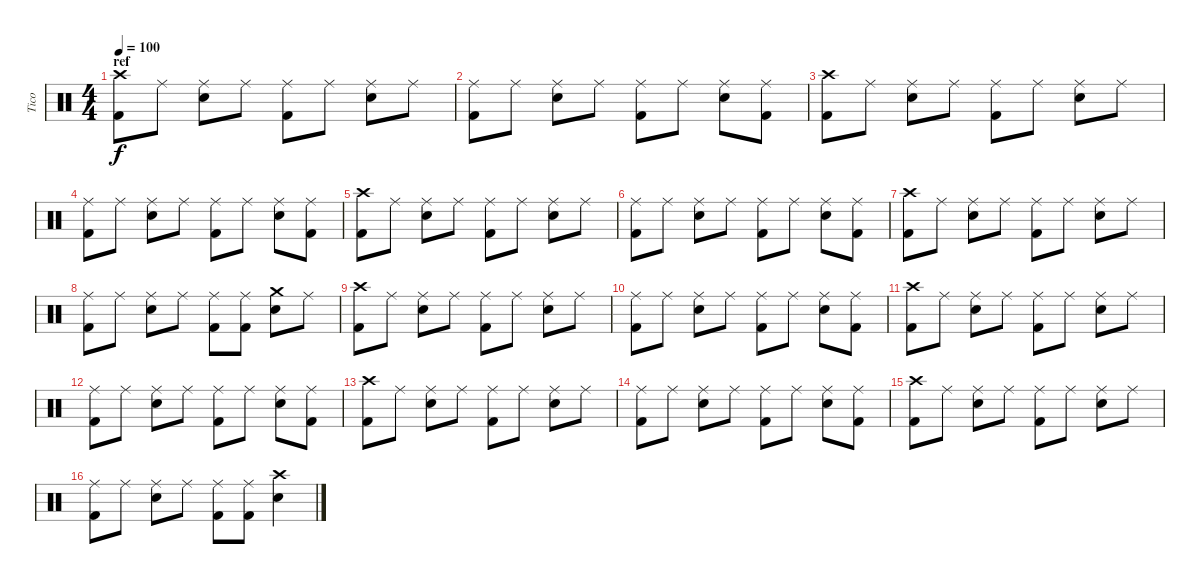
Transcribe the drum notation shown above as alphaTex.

\track ("Tico" "Tico") {instrument percussion}
\staff {score}
\articulation defaults
\ts (4 4)
\section ("" "ref")
\tempo 100
\clef neutral
\ks c
("Crash high (hit)" "Kick (hit) 2").8{dy f} "Ride (middle)".8 ("Ride (middle)" "Snare (hit) 2").8 "Ride (middle)".8 ("Ride (middle)" "Kick (hit) 2").8 "Ride (middle)".8 ("Ride (middle)" "Snare (hit) 2").8 "Ride (middle)".8 |
("Ride (middle)" "Kick (hit) 2").8 "Ride (middle)".8 ("Ride (middle)" "Snare (hit) 2").8 "Ride (middle)".8 ("Ride (middle)" "Kick (hit) 2").8 "Ride (middle)".8 ("Ride (middle)" "Snare (hit) 2").8 ("Ride (middle)" "Kick (hit) 2").8 |
("Crash high (hit)" "Kick (hit) 2").8 "Ride (middle)".8 ("Ride (middle)" "Snare (hit) 2").8 "Ride (middle)".8 ("Ride (middle)" "Kick (hit) 2").8 "Ride (middle)".8 ("Ride (middle)" "Snare (hit) 2").8 "Ride (middle)".8 |
("Ride (middle)" "Kick (hit) 2").8 "Ride (middle)".8 ("Ride (middle)" "Snare (hit) 2").8 "Ride (middle)".8 ("Ride (middle)" "Kick (hit) 2").8 "Ride (middle)".8 ("Ride (middle)" "Snare (hit) 2").8 ("Ride (middle)" "Kick (hit) 2").8 |
("Crash high (hit)" "Kick (hit) 2").8 "Ride (middle)".8 ("Ride (middle)" "Snare (hit) 2").8 "Ride (middle)".8 ("Ride (middle)" "Kick (hit) 2").8 "Ride (middle)".8 ("Ride (middle)" "Snare (hit) 2").8 "Ride (middle)".8 |
("Ride (middle)" "Kick (hit) 2").8 "Ride (middle)".8 ("Ride (middle)" "Snare (hit) 2").8 "Ride (middle)".8 ("Ride (middle)" "Kick (hit) 2").8 "Ride (middle)".8 ("Ride (middle)" "Snare (hit) 2").8 ("Ride (middle)" "Kick (hit) 2").8 |
("Crash high (hit)" "Kick (hit) 2").8 "Ride (middle)".8 ("Ride (middle)" "Snare (hit) 2").8 "Ride (middle)".8 ("Ride (middle)" "Kick (hit) 2").8 "Ride (middle)".8 ("Ride (middle)" "Snare (hit) 2").8 "Ride (middle)".8 |
("Ride (middle)" "Kick (hit) 2").8 "Ride (middle)".8 ("Ride (middle)" "Snare (hit) 2").8 "Ride (middle)".8 ("Ride (middle)" "Kick (hit) 2").8 ("Ride (middle)" "Kick (hit) 2").8 ("Crash medium (hit)" "Snare (hit) 2").8 "Ride (middle)".8 |
("Crash high (hit)" "Kick (hit) 2").8 "Ride (middle)".8 ("Ride (middle)" "Snare (hit) 2").8 "Ride (middle)".8 ("Ride (middle)" "Kick (hit) 2").8 "Ride (middle)".8 ("Ride (middle)" "Snare (hit) 2").8 "Ride (middle)".8 |
("Ride (middle)" "Kick (hit) 2").8 "Ride (middle)".8 ("Ride (middle)" "Snare (hit) 2").8 "Ride (middle)".8 ("Ride (middle)" "Kick (hit) 2").8 "Ride (middle)".8 ("Ride (middle)" "Snare (hit) 2").8 ("Ride (middle)" "Kick (hit) 2").8 |
("Crash high (hit)" "Kick (hit) 2").8 "Ride (middle)".8 ("Ride (middle)" "Snare (hit) 2").8 "Ride (middle)".8 ("Ride (middle)" "Kick (hit) 2").8 "Ride (middle)".8 ("Ride (middle)" "Snare (hit) 2").8 "Ride (middle)".8 |
("Ride (middle)" "Kick (hit) 2").8 "Ride (middle)".8 ("Ride (middle)" "Snare (hit) 2").8 "Ride (middle)".8 ("Ride (middle)" "Kick (hit) 2").8 "Ride (middle)".8 ("Ride (middle)" "Snare (hit) 2").8 ("Ride (middle)" "Kick (hit) 2").8 |
("Crash high (hit)" "Kick (hit) 2").8 "Ride (middle)".8 ("Ride (middle)" "Snare (hit) 2").8 "Ride (middle)".8 ("Ride (middle)" "Kick (hit) 2").8 "Ride (middle)".8 ("Ride (middle)" "Snare (hit) 2").8 "Ride (middle)".8 |
("Ride (middle)" "Kick (hit) 2").8 "Ride (middle)".8 ("Ride (middle)" "Snare (hit) 2").8 "Ride (middle)".8 ("Ride (middle)" "Kick (hit) 2").8 "Ride (middle)".8 ("Ride (middle)" "Snare (hit) 2").8 ("Ride (middle)" "Kick (hit) 2").8 |
("Crash high (hit)" "Kick (hit) 2").8 "Ride (middle)".8 ("Ride (middle)" "Snare (hit) 2").8 "Ride (middle)".8 ("Ride (middle)" "Kick (hit) 2").8 "Ride (middle)".8 ("Ride (middle)" "Snare (hit) 2").8 "Ride (middle)".8 |
("Ride (middle)" "Kick (hit) 2").8 "Ride (middle)".8 ("Ride (middle)" "Snare (hit) 2").8 "Ride (middle)".8 ("Ride (middle)" "Kick (hit) 2").8 ("Ride (middle)" "Kick (hit) 2").8 ("Crash high (hit)" "Snare (hit) 2").4
